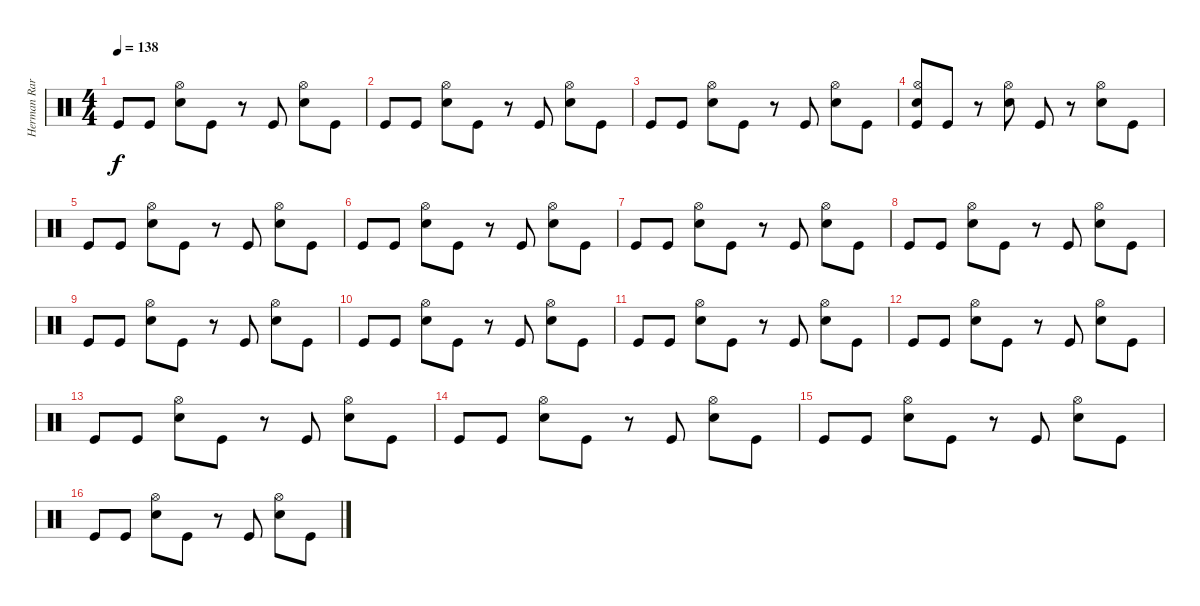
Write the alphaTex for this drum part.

\track ("Herman Rarebell Drums" "Herman Rar") {instrument percussion}
\staff {score}
\articulation defaults
\ts (4 4)
\tempo 138
\clef neutral
\ks c "Kick (hit)".8{dy f} "Kick (hit)".8
("Hi-Hat (open)" "Snare (hit) 2").8 "Kick (hit)".8 r.8 "Kick (hit)".8 ("Hi-Hat (open)" "Snare (hit) 2").8 "Kick (hit)".8 |
"Kick (hit)".8 "Kick (hit)".8 ("Hi-Hat (open)" "Snare (hit) 2").8 "Kick (hit)".8 r.8 "Kick (hit)".8 ("Hi-Hat (open)" "Snare (hit) 2").8 "Kick (hit)".8 |
"Kick (hit)".8 "Kick (hit)".8 ("Hi-Hat (open)" "Snare (hit) 2").8 "Kick (hit)".8 r.8 "Kick (hit)".8 ("Hi-Hat (open)" "Snare (hit) 2").8 "Kick (hit)".8 |
("Hi-Hat (open)" "Snare (hit) 2" "Kick (hit)").8 "Kick (hit)".8 r.8 ("Hi-Hat (open)" "Snare (hit) 2").8 "Kick (hit)".8 r.8 ("Hi-Hat (open)" "Snare (hit) 2").8 "Kick (hit)".8 |
"Kick (hit)".8 "Kick (hit)".8 ("Hi-Hat (open)" "Snare (hit) 2").8 "Kick (hit)".8 r.8 "Kick (hit)".8 ("Hi-Hat (open)" "Snare (hit) 2").8 "Kick (hit)".8 |
"Kick (hit)".8 "Kick (hit)".8 ("Hi-Hat (open)" "Snare (hit) 2").8 "Kick (hit)".8 r.8 "Kick (hit)".8 ("Hi-Hat (open)" "Snare (hit) 2").8 "Kick (hit)".8 |
"Kick (hit)".8 "Kick (hit)".8 ("Hi-Hat (open)" "Snare (hit) 2").8 "Kick (hit)".8 r.8 "Kick (hit)".8 ("Hi-Hat (open)" "Snare (hit) 2").8 "Kick (hit)".8 |
"Kick (hit)".8 "Kick (hit)".8 ("Hi-Hat (open)" "Snare (hit) 2").8 "Kick (hit)".8 r.8 "Kick (hit)".8 ("Hi-Hat (open)" "Snare (hit) 2").8 "Kick (hit)".8 |
"Kick (hit)".8 "Kick (hit)".8 ("Hi-Hat (open)" "Snare (hit) 2").8 "Kick (hit)".8 r.8 "Kick (hit)".8 ("Hi-Hat (open)" "Snare (hit) 2").8 "Kick (hit)".8 |
"Kick (hit)".8 "Kick (hit)".8 ("Hi-Hat (open)" "Snare (hit) 2").8 "Kick (hit)".8 r.8 "Kick (hit)".8 ("Hi-Hat (open)" "Snare (hit) 2").8 "Kick (hit)".8 |
"Kick (hit)".8 "Kick (hit)".8 ("Hi-Hat (open)" "Snare (hit) 2").8 "Kick (hit)".8 r.8 "Kick (hit)".8 ("Hi-Hat (open)" "Snare (hit) 2").8 "Kick (hit)".8 |
"Kick (hit)".8 "Kick (hit)".8 ("Hi-Hat (open)" "Snare (hit) 2").8 "Kick (hit)".8 r.8 "Kick (hit)".8 ("Hi-Hat (open)" "Snare (hit) 2").8 "Kick (hit)".8 |
"Kick (hit)".8 "Kick (hit)".8 ("Hi-Hat (open)" "Snare (hit) 2").8 "Kick (hit)".8 r.8 "Kick (hit)".8 ("Hi-Hat (open)" "Snare (hit) 2").8 "Kick (hit)".8 |
"Kick (hit)".8 "Kick (hit)".8 ("Hi-Hat (open)" "Snare (hit) 2").8 "Kick (hit)".8 r.8 "Kick (hit)".8 ("Hi-Hat (open)" "Snare (hit) 2").8 "Kick (hit)".8 |
"Kick (hit)".8 "Kick (hit)".8 ("Hi-Hat (open)" "Snare (hit) 2").8 "Kick (hit)".8 r.8 "Kick (hit)".8 ("Hi-Hat (open)" "Snare (hit) 2").8 "Kick (hit)".8 |
"Kick (hit)".8 "Kick (hit)".8 ("Hi-Hat (open)" "Snare (hit) 2").8 "Kick (hit)".8 r.8 "Kick (hit)".8 ("Hi-Hat (open)" "Snare (hit) 2").8 "Kick (hit)".8
